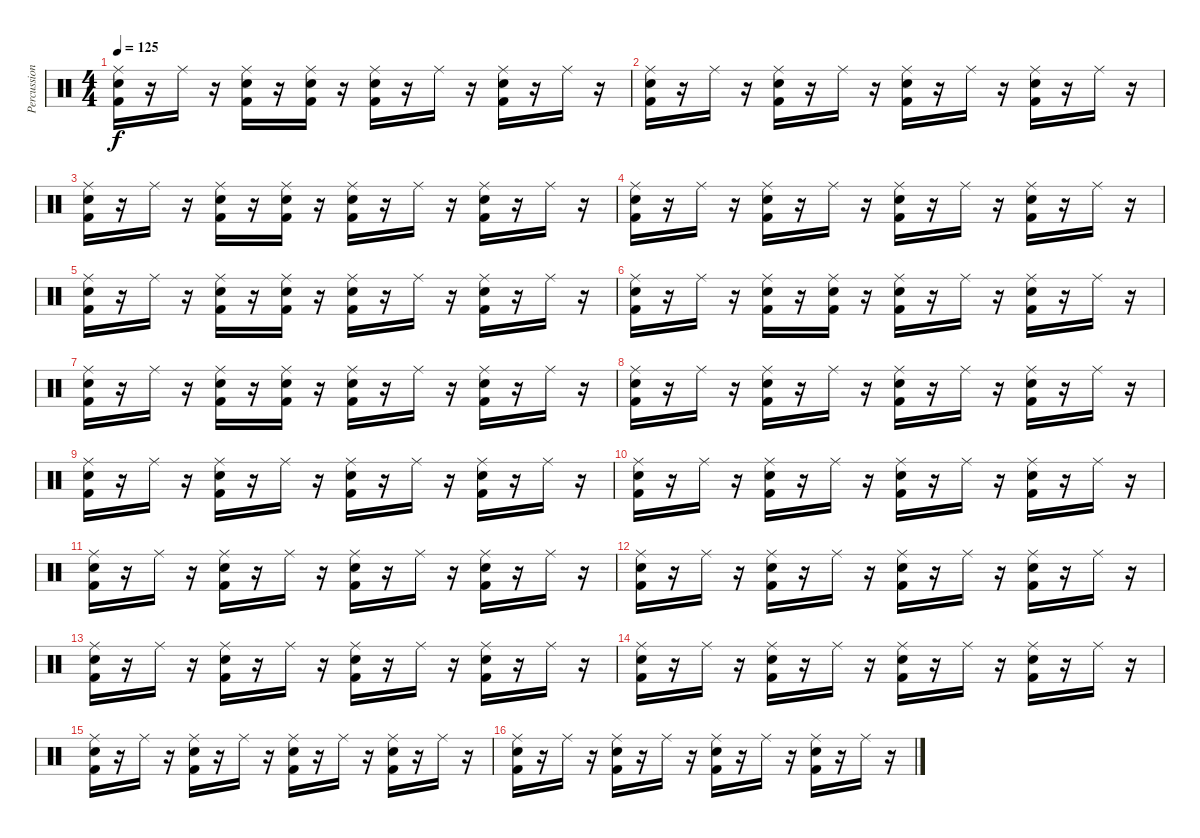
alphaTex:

\track ("Percussion" "Percussion") {instrument percussion}
\staff {score}
\articulation defaults
\ts (4 4)
\tempo 125
\clef neutral
\ks c
("Kick (hit) 2" "Snare (hit) 2" "Ride (middle)").16{dy f} r.16 "Ride (middle)".16 r.16 ("Kick (hit) 2" "Snare (hit) 2" "Ride (middle)").16 r.16 ("Kick (hit) 2" "Snare (hit) 2" "Ride (middle)").16 r.16 ("Kick (hit) 2" "Snare (hit) 2" "Ride (middle)").16 r.16 "Ride (middle)".16 r.16 ("Kick (hit) 2" "Snare (hit) 2" "Ride (middle)").16 r.16 "Ride (middle)".16 r.16 |
("Kick (hit) 2" "Snare (hit) 2" "Ride (middle)").16 r.16 "Ride (middle)".16 r.16 ("Kick (hit) 2" "Snare (hit) 2" "Ride (middle)").16 r.16 "Ride (middle)".16 r.16 ("Kick (hit) 2" "Snare (hit) 2" "Ride (middle)").16 r.16 "Ride (middle)".16 r.16 ("Kick (hit) 2" "Snare (hit) 2" "Ride (middle)").16 r.16 "Ride (middle)".16 r.16 |
("Kick (hit) 2" "Snare (hit) 2" "Ride (middle)").16 r.16 "Ride (middle)".16 r.16 ("Kick (hit) 2" "Snare (hit) 2" "Ride (middle)").16 r.16 ("Kick (hit) 2" "Snare (hit) 2" "Ride (middle)").16 r.16 ("Kick (hit) 2" "Snare (hit) 2" "Ride (middle)").16 r.16 "Ride (middle)".16 r.16 ("Kick (hit) 2" "Snare (hit) 2" "Ride (middle)").16 r.16 "Ride (middle)".16 r.16 |
("Kick (hit) 2" "Snare (hit) 2" "Ride (middle)").16 r.16 "Ride (middle)".16 r.16 ("Kick (hit) 2" "Snare (hit) 2" "Ride (middle)").16 r.16 "Ride (middle)".16 r.16 ("Kick (hit) 2" "Snare (hit) 2" "Ride (middle)").16 r.16 "Ride (middle)".16 r.16 ("Kick (hit) 2" "Snare (hit) 2" "Ride (middle)").16 r.16 "Ride (middle)".16 r.16 |
("Kick (hit) 2" "Snare (hit) 2" "Ride (middle)").16 r.16 "Ride (middle)".16 r.16 ("Kick (hit) 2" "Snare (hit) 2" "Ride (middle)").16 r.16 ("Kick (hit) 2" "Snare (hit) 2" "Ride (middle)").16 r.16 ("Kick (hit) 2" "Snare (hit) 2" "Ride (middle)").16 r.16 "Ride (middle)".16 r.16 ("Kick (hit) 2" "Snare (hit) 2" "Ride (middle)").16 r.16 "Ride (middle)".16 r.16 |
("Kick (hit) 2" "Snare (hit) 2" "Ride (middle)").16 r.16 "Ride (middle)".16 r.16 ("Kick (hit) 2" "Snare (hit) 2" "Ride (middle)").16 r.16 ("Kick (hit) 2" "Snare (hit) 2" "Ride (middle)").16 r.16 ("Kick (hit) 2" "Snare (hit) 2" "Ride (middle)").16 r.16 "Ride (middle)".16 r.16 ("Kick (hit) 2" "Snare (hit) 2" "Ride (middle)").16 r.16 "Ride (middle)".16 r.16 |
("Kick (hit) 2" "Snare (hit) 2" "Ride (middle)").16 r.16 "Ride (middle)".16 r.16 ("Kick (hit) 2" "Snare (hit) 2" "Ride (middle)").16 r.16 ("Kick (hit) 2" "Snare (hit) 2" "Ride (middle)").16 r.16 ("Kick (hit) 2" "Snare (hit) 2" "Ride (middle)").16 r.16 "Ride (middle)".16 r.16 ("Kick (hit) 2" "Snare (hit) 2" "Ride (middle)").16 r.16 "Ride (middle)".16 r.16 |
("Kick (hit) 2" "Snare (hit) 2" "Ride (middle)").16 r.16 "Ride (middle)".16 r.16 ("Kick (hit) 2" "Snare (hit) 2" "Ride (middle)").16 r.16 "Ride (middle)".16 r.16 ("Kick (hit) 2" "Snare (hit) 2" "Ride (middle)").16 r.16 "Ride (middle)".16 r.16 ("Kick (hit) 2" "Snare (hit) 2" "Ride (middle)").16 r.16 "Ride (middle)".16 r.16 |
("Kick (hit) 2" "Snare (hit) 2" "Ride (middle)").16 r.16 "Ride (middle)".16 r.16 ("Kick (hit) 2" "Snare (hit) 2" "Ride (middle)").16 r.16 "Ride (middle)".16 r.16 ("Kick (hit) 2" "Snare (hit) 2" "Ride (middle)").16 r.16 "Ride (middle)".16 r.16 ("Kick (hit) 2" "Snare (hit) 2" "Ride (middle)").16 r.16 "Ride (middle)".16 r.16 |
("Kick (hit) 2" "Snare (hit) 2" "Ride (middle)").16 r.16 "Ride (middle)".16 r.16 ("Kick (hit) 2" "Snare (hit) 2" "Ride (middle)").16 r.16 "Ride (middle)".16 r.16 ("Kick (hit) 2" "Snare (hit) 2" "Ride (middle)").16 r.16 "Ride (middle)".16 r.16 ("Kick (hit) 2" "Snare (hit) 2" "Ride (middle)").16 r.16 "Ride (middle)".16 r.16 |
("Kick (hit) 2" "Snare (hit) 2" "Ride (middle)").16 r.16 "Ride (middle)".16 r.16 ("Kick (hit) 2" "Snare (hit) 2" "Ride (middle)").16 r.16 "Ride (middle)".16 r.16 ("Kick (hit) 2" "Snare (hit) 2" "Ride (middle)").16 r.16 "Ride (middle)".16 r.16 ("Kick (hit) 2" "Snare (hit) 2" "Ride (middle)").16 r.16 "Ride (middle)".16 r.16 |
("Kick (hit) 2" "Snare (hit) 2" "Ride (middle)").16 r.16 "Ride (middle)".16 r.16 ("Kick (hit) 2" "Snare (hit) 2" "Ride (middle)").16 r.16 "Ride (middle)".16 r.16 ("Kick (hit) 2" "Snare (hit) 2" "Ride (middle)").16 r.16 "Ride (middle)".16 r.16 ("Kick (hit) 2" "Snare (hit) 2" "Ride (middle)").16 r.16 "Ride (middle)".16 r.16 |
("Kick (hit) 2" "Snare (hit) 2" "Ride (middle)").16 r.16 "Ride (middle)".16 r.16 ("Kick (hit) 2" "Snare (hit) 2" "Ride (middle)").16 r.16 "Ride (middle)".16 r.16 ("Kick (hit) 2" "Snare (hit) 2" "Ride (middle)").16 r.16 "Ride (middle)".16 r.16 ("Kick (hit) 2" "Snare (hit) 2" "Ride (middle)").16 r.16 "Ride (middle)".16 r.16 |
("Kick (hit) 2" "Snare (hit) 2" "Ride (middle)").16 r.16 "Ride (middle)".16 r.16 ("Kick (hit) 2" "Snare (hit) 2" "Ride (middle)").16 r.16 "Ride (middle)".16 r.16 ("Kick (hit) 2" "Snare (hit) 2" "Ride (middle)").16 r.16 "Ride (middle)".16 r.16 ("Kick (hit) 2" "Snare (hit) 2" "Ride (middle)").16 r.16 "Ride (middle)".16 r.16 |
("Kick (hit) 2" "Snare (hit) 2" "Ride (middle)").16 r.16 "Ride (middle)".16 r.16 ("Kick (hit) 2" "Snare (hit) 2" "Ride (middle)").16 r.16 "Ride (middle)".16 r.16 ("Kick (hit) 2" "Snare (hit) 2" "Ride (middle)").16 r.16 "Ride (middle)".16 r.16 ("Kick (hit) 2" "Snare (hit) 2" "Ride (middle)").16 r.16 "Ride (middle)".16 r.16 |
("Kick (hit) 2" "Snare (hit) 2" "Ride (middle)").16 r.16 "Ride (middle)".16 r.16 ("Kick (hit) 2" "Snare (hit) 2" "Ride (middle)").16 r.16 "Ride (middle)".16 r.16 ("Kick (hit) 2" "Snare (hit) 2" "Ride (middle)").16 r.16 "Ride (middle)".16 r.16 ("Kick (hit) 2" "Snare (hit) 2" "Ride (middle)").16 r.16 "Ride (middle)".16 r.16
